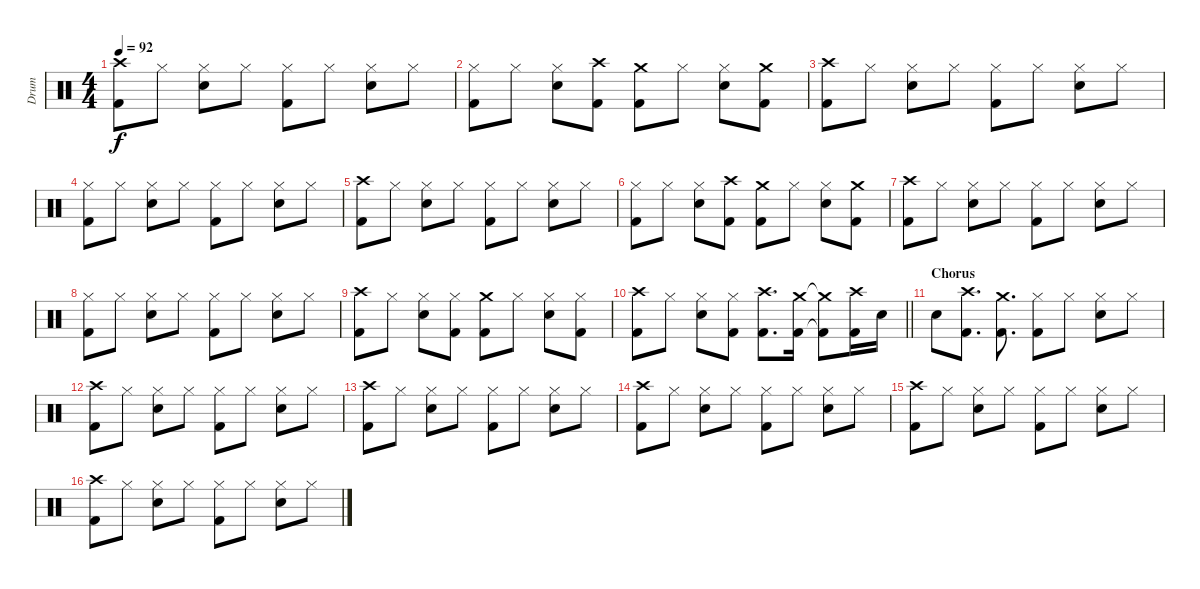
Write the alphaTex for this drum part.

\track ("Drum" "Drum") {instrument percussion}
\staff {score}
\articulation defaults
\ts (4 4)
\tempo 92
\clef neutral
\ks c
("Crash high (hit)" "Kick (hit) 2").8{dy f} "Hi-Hat (closed)".8 ("Hi-Hat (closed)" "Snare (hit) 2").8 "Hi-Hat (closed)".8 ("Hi-Hat (closed)" "Kick (hit) 2").8 "Hi-Hat (closed)".8 ("Hi-Hat (closed)" "Snare (hit) 2").8 "Hi-Hat (closed)".8 |
("Hi-Hat (closed)" "Kick (hit) 2").8 "Hi-Hat (closed)".8 ("Hi-Hat (closed)" "Snare (hit) 2").8 ("Crash high (hit)" "Kick (hit) 2").8 ("Crash medium (hit)" "Kick (hit) 2").8 "Hi-Hat (closed)".8 ("Hi-Hat (closed)" "Snare (hit) 2").8 ("Crash medium (hit)" "Kick (hit) 2").8 |
("Crash high (hit)" "Kick (hit) 2").8 "Hi-Hat (closed)".8 ("Hi-Hat (closed)" "Snare (hit) 2").8 "Hi-Hat (closed)".8 ("Hi-Hat (closed)" "Kick (hit) 2").8 "Hi-Hat (closed)".8 ("Hi-Hat (closed)" "Snare (hit) 2").8 "Hi-Hat (closed)".8 |
("Hi-Hat (closed)" "Kick (hit) 2").8 "Hi-Hat (closed)".8 ("Hi-Hat (closed)" "Snare (hit) 2").8 "Hi-Hat (closed)".8 ("Hi-Hat (closed)" "Kick (hit) 2").8 "Hi-Hat (closed)".8 ("Hi-Hat (closed)" "Snare (hit) 2").8 "Hi-Hat (closed)".8 |
("Crash high (hit)" "Kick (hit) 2").8 "Hi-Hat (closed)".8 ("Hi-Hat (closed)" "Snare (hit) 2").8 "Hi-Hat (closed)".8 ("Hi-Hat (closed)" "Kick (hit) 2").8 "Hi-Hat (closed)".8 ("Hi-Hat (closed)" "Snare (hit) 2").8 "Hi-Hat (closed)".8 |
("Hi-Hat (closed)" "Kick (hit) 2").8 "Hi-Hat (closed)".8 ("Hi-Hat (closed)" "Snare (hit) 2").8 ("Crash high (hit)" "Kick (hit) 2").8 ("Crash medium (hit)" "Kick (hit) 2").8 "Hi-Hat (closed)".8 ("Hi-Hat (closed)" "Snare (hit) 2").8 ("Crash medium (hit)" "Kick (hit) 2").8 |
("Crash high (hit)" "Kick (hit) 2").8 "Hi-Hat (closed)".8 ("Hi-Hat (closed)" "Snare (hit) 2").8 "Hi-Hat (closed)".8 ("Hi-Hat (closed)" "Kick (hit) 2").8 "Hi-Hat (closed)".8 ("Hi-Hat (closed)" "Snare (hit) 2").8 "Hi-Hat (closed)".8 |
("Hi-Hat (closed)" "Kick (hit) 2").8 "Hi-Hat (closed)".8 ("Hi-Hat (closed)" "Snare (hit) 2").8 "Hi-Hat (closed)".8 ("Hi-Hat (closed)" "Kick (hit) 2").8 "Hi-Hat (closed)".8 ("Hi-Hat (closed)" "Snare (hit) 2").8 "Hi-Hat (closed)".8 |
("Crash high (hit)" "Kick (hit) 2").8 "Hi-Hat (closed)".8 ("Hi-Hat (closed)" "Snare (hit) 2").8 ("Hi-Hat (closed)" "Kick (hit) 2").8 ("Crash medium (hit)" "Kick (hit) 2").8 "Hi-Hat (closed)".8 ("Hi-Hat (closed)" "Snare (hit) 2").8 ("Hi-Hat (closed)" "Kick (hit) 2").8 |
\barLineRight lightlight
("Crash high (hit)" "Kick (hit) 2").8 "Hi-Hat (closed)".8 ("Hi-Hat (closed)" "Snare (hit) 2").8 ("Hi-Hat (closed)" "Kick (hit) 2").8 ("Crash high (hit)" "Kick (hit) 2").8{d} ("Crash medium (hit)" "Kick (hit) 2").16 ("Crash medium (hit)"{t} "Kick (hit) 2"{t}).8 ("Crash high (hit)" "Kick (hit) 2").16 "Snare (hit) 2".16 |
\section ("" "Chorus")
"Snare (hit) 2".8 ("Crash high (hit)" "Kick (hit) 2").8{d} ("Crash medium (hit)" "Kick (hit) 2").8{d} ("Hi-Hat (closed)" "Kick (hit) 2").8 "Hi-Hat (closed)".8 ("Hi-Hat (closed)" "Snare (hit) 2").8 "Hi-Hat (closed)".8 |
("Crash high (hit)" "Kick (hit) 2").8 "Hi-Hat (closed)".8 ("Hi-Hat (closed)" "Snare (hit) 2").8 "Hi-Hat (closed)".8 ("Hi-Hat (closed)" "Kick (hit) 2").8 "Hi-Hat (closed)".8 ("Hi-Hat (closed)" "Snare (hit) 2").8 "Hi-Hat (closed)".8 |
("Crash high (hit)" "Kick (hit) 2").8 "Hi-Hat (closed)".8 ("Hi-Hat (closed)" "Snare (hit) 2").8 "Hi-Hat (closed)".8 ("Hi-Hat (closed)" "Kick (hit) 2").8 "Hi-Hat (closed)".8 ("Hi-Hat (closed)" "Snare (hit) 2").8 "Hi-Hat (closed)".8 |
("Crash high (hit)" "Kick (hit) 2").8 "Hi-Hat (closed)".8 ("Hi-Hat (closed)" "Snare (hit) 2").8 "Hi-Hat (closed)".8 ("Hi-Hat (closed)" "Kick (hit) 2").8 "Hi-Hat (closed)".8 ("Hi-Hat (closed)" "Snare (hit) 2").8 "Hi-Hat (closed)".8 |
("Crash high (hit)" "Kick (hit) 2").8 "Hi-Hat (closed)".8 ("Hi-Hat (closed)" "Snare (hit) 2").8 "Hi-Hat (closed)".8 ("Hi-Hat (closed)" "Kick (hit) 2").8 "Hi-Hat (closed)".8 ("Hi-Hat (closed)" "Snare (hit) 2").8 "Hi-Hat (closed)".8 |
("Crash high (hit)" "Kick (hit) 2").8 "Hi-Hat (closed)".8 ("Hi-Hat (closed)" "Snare (hit) 2").8 "Hi-Hat (closed)".8 ("Hi-Hat (closed)" "Kick (hit) 2").8 "Hi-Hat (closed)".8 ("Hi-Hat (closed)" "Snare (hit) 2").8 "Hi-Hat (closed)".8
